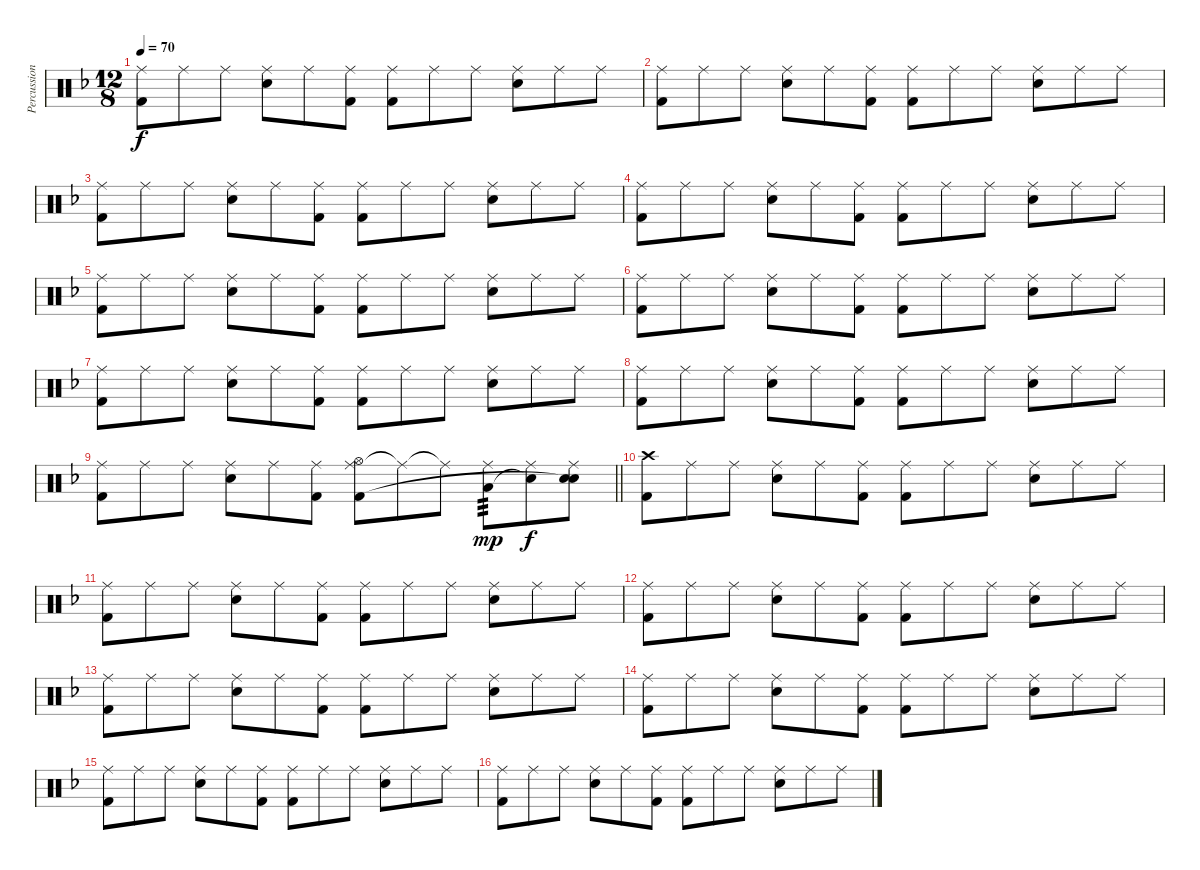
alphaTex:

\track ("Percussion" "Percussion") {instrument percussion}
\staff {score}
\articulation defaults
\ts (12 8)
\tempo 70
\clef neutral
\ks dminor
("Ride (middle)" "Kick (hit) 2").8{dy f} "Ride (middle)".8 "Ride (middle)".8 ("Ride (middle)" "Snare (hit) 2").8 "Ride (middle)".8 ("Ride (middle)" "Kick (hit) 2").8 ("Ride (middle)" "Kick (hit) 2").8 "Ride (middle)".8 "Ride (middle)".8 ("Ride (middle)" "Snare (hit) 2").8 "Ride (middle)".8 "Ride (middle)".8 |
("Ride (middle)" "Kick (hit) 2").8 "Ride (middle)".8 "Ride (middle)".8 ("Ride (middle)" "Snare (hit) 2").8 "Ride (middle)".8 ("Ride (middle)" "Kick (hit) 2").8 ("Ride (middle)" "Kick (hit) 2").8 "Ride (middle)".8 "Ride (middle)".8 ("Ride (middle)" "Snare (hit) 2").8 "Ride (middle)".8 "Ride (middle)".8 |
("Ride (middle)" "Kick (hit) 2").8 "Ride (middle)".8 "Ride (middle)".8 ("Ride (middle)" "Snare (hit) 2").8 "Ride (middle)".8 ("Ride (middle)" "Kick (hit) 2").8 ("Ride (middle)" "Kick (hit) 2").8 "Ride (middle)".8 "Ride (middle)".8 ("Ride (middle)" "Snare (hit) 2").8 "Ride (middle)".8 "Ride (middle)".8 |
("Ride (middle)" "Kick (hit) 2").8 "Ride (middle)".8 "Ride (middle)".8 ("Ride (middle)" "Snare (hit) 2").8 "Ride (middle)".8 ("Ride (middle)" "Kick (hit) 2").8 ("Ride (middle)" "Kick (hit) 2").8 "Ride (middle)".8 "Ride (middle)".8 ("Ride (middle)" "Snare (hit) 2").8 "Ride (middle)".8 "Ride (middle)".8 |
("Ride (middle)" "Kick (hit) 2").8 "Ride (middle)".8 "Ride (middle)".8 ("Ride (middle)" "Snare (hit) 2").8 "Ride (middle)".8 ("Ride (middle)" "Kick (hit) 2").8 ("Ride (middle)" "Kick (hit) 2").8 "Ride (middle)".8 "Ride (middle)".8 ("Ride (middle)" "Snare (hit) 2").8 "Ride (middle)".8 "Ride (middle)".8 |
("Ride (middle)" "Kick (hit) 2").8 "Ride (middle)".8 "Ride (middle)".8 ("Ride (middle)" "Snare (hit) 2").8 "Ride (middle)".8 ("Ride (middle)" "Kick (hit) 2").8 ("Ride (middle)" "Kick (hit) 2").8 "Ride (middle)".8 "Ride (middle)".8 ("Ride (middle)" "Snare (hit) 2").8 "Ride (middle)".8 "Ride (middle)".8 |
("Ride (middle)" "Kick (hit) 2").8 "Ride (middle)".8 "Ride (middle)".8 ("Ride (middle)" "Snare (hit) 2").8 "Ride (middle)".8 ("Ride (middle)" "Kick (hit) 2").8 ("Ride (middle)" "Kick (hit) 2").8 "Ride (middle)".8 "Ride (middle)".8 ("Ride (middle)" "Snare (hit) 2").8 "Ride (middle)".8 "Ride (middle)".8 |
("Ride (middle)" "Kick (hit) 2").8 "Ride (middle)".8 "Ride (middle)".8 ("Ride (middle)" "Snare (hit) 2").8 "Ride (middle)".8 ("Ride (middle)" "Kick (hit) 2").8 ("Ride (middle)" "Kick (hit) 2").8 "Ride (middle)".8 "Ride (middle)".8 ("Ride (middle)" "Snare (hit) 2").8 "Ride (middle)".8 "Ride (middle)".8 |
\barLineRight lightlight
("Ride (middle)" "Kick (hit) 2").8 "Ride (middle)".8 "Ride (middle)".8 ("Ride (middle)" "Snare (hit) 2").8 "Ride (middle)".8 ("Ride (middle)" "Kick (hit) 2").8 ("Ride (middle)" "Hi-Hat (open)" "Kick (hit) 2").8 "Ride (middle)"{t}.8 "Ride (middle)"{t}.8 ("Ride (middle)" "Low Floor Tom (hit)").8{tp 3 dy mp} ("Ride (middle)" "Snare (hit)"{t}).8{dy f} ("Ride (middle)" "Snare (hit) 2" "Snare (hit)"{t}).8 |
("Crash high (hit)" "Kick (hit) 2").8 "Ride (middle)".8 "Ride (middle)".8 ("Ride (middle)" "Snare (hit) 2").8 "Ride (middle)".8 ("Ride (middle)" "Kick (hit) 2").8 ("Ride (middle)" "Kick (hit) 2").8 "Ride (middle)".8 "Ride (middle)".8 ("Ride (middle)" "Snare (hit) 2").8 "Ride (middle)".8 "Ride (middle)".8 |
("Ride (middle)" "Kick (hit) 2").8 "Ride (middle)".8 "Ride (middle)".8 ("Ride (middle)" "Snare (hit) 2").8 "Ride (middle)".8 ("Ride (middle)" "Kick (hit) 2").8 ("Ride (middle)" "Kick (hit) 2").8 "Ride (middle)".8 "Ride (middle)".8 ("Ride (middle)" "Snare (hit) 2").8 "Ride (middle)".8 "Ride (middle)".8 |
("Ride (middle)" "Kick (hit) 2").8 "Ride (middle)".8 "Ride (middle)".8 ("Ride (middle)" "Snare (hit) 2").8 "Ride (middle)".8 ("Ride (middle)" "Kick (hit) 2").8 ("Ride (middle)" "Kick (hit) 2").8 "Ride (middle)".8 "Ride (middle)".8 ("Ride (middle)" "Snare (hit) 2").8 "Ride (middle)".8 "Ride (middle)".8 |
("Ride (middle)" "Kick (hit) 2").8 "Ride (middle)".8 "Ride (middle)".8 ("Ride (middle)" "Snare (hit) 2").8 "Ride (middle)".8 ("Ride (middle)" "Kick (hit) 2").8 ("Ride (middle)" "Kick (hit) 2").8 "Ride (middle)".8 "Ride (middle)".8 ("Ride (middle)" "Snare (hit) 2").8 "Ride (middle)".8 "Ride (middle)".8 |
("Ride (middle)" "Kick (hit) 2").8 "Ride (middle)".8 "Ride (middle)".8 ("Ride (middle)" "Snare (hit) 2").8 "Ride (middle)".8 ("Ride (middle)" "Kick (hit) 2").8 ("Ride (middle)" "Kick (hit) 2").8 "Ride (middle)".8 "Ride (middle)".8 ("Ride (middle)" "Snare (hit) 2").8 "Ride (middle)".8 "Ride (middle)".8 |
("Ride (middle)" "Kick (hit) 2").8 "Ride (middle)".8 "Ride (middle)".8 ("Ride (middle)" "Snare (hit) 2").8 "Ride (middle)".8 ("Ride (middle)" "Kick (hit) 2").8 ("Ride (middle)" "Kick (hit) 2").8 "Ride (middle)".8 "Ride (middle)".8 ("Ride (middle)" "Snare (hit) 2").8 "Ride (middle)".8 "Ride (middle)".8 |
("Ride (middle)" "Kick (hit) 2").8 "Ride (middle)".8 "Ride (middle)".8 ("Ride (middle)" "Snare (hit) 2").8 "Ride (middle)".8 ("Ride (middle)" "Kick (hit) 2").8 ("Ride (middle)" "Kick (hit) 2").8 "Ride (middle)".8 "Ride (middle)".8 ("Ride (middle)" "Snare (hit) 2").8 "Ride (middle)".8 "Ride (middle)".8
